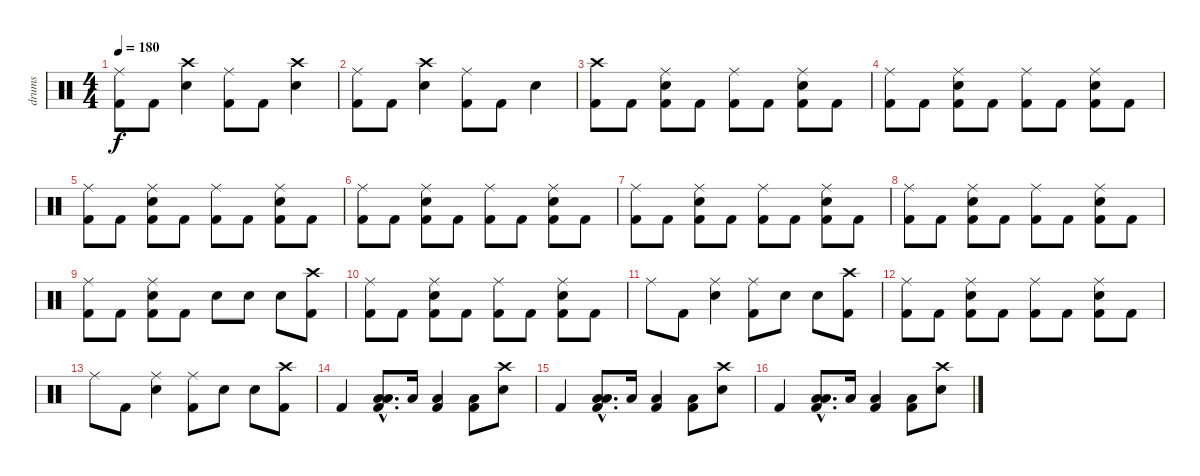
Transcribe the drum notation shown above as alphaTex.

\track ("drums" "drums") {instrument percussion}
\staff {score}
\articulation defaults
\ts (4 4)
\tempo 180
\clef neutral
\ks c
("Ride (middle)" "Kick (hit) 2").8{dy f} "Kick (hit) 2".8 ("Crash high (hit)" "Electric Snare (hit)").4 ("Ride (middle)" "Kick (hit) 2").8 "Kick (hit) 2".8 ("Crash high (hit)" "Electric Snare (hit)").4 |
("Ride (middle)" "Kick (hit) 2").8 "Kick (hit) 2".8 ("Crash high (hit)" "Electric Snare (hit)").4 ("Ride (middle)" "Kick (hit) 2").8 "Kick (hit) 2".8 "Electric Snare (hit)".4 |
("Crash high (hit)" "Kick (hit) 2").8 "Kick (hit) 2".8 ("Ride (middle)" "Electric Snare (hit)" "Kick (hit) 2").8 "Kick (hit) 2".8 ("Ride (middle)" "Kick (hit) 2").8 "Kick (hit) 2".8 ("Ride (middle)" "Electric Snare (hit)" "Kick (hit) 2").8 "Kick (hit) 2".8 |
("Ride (middle)" "Kick (hit) 2").8 "Kick (hit) 2".8 ("Ride (middle)" "Electric Snare (hit)" "Kick (hit) 2").8 "Kick (hit) 2".8 ("Ride (middle)" "Kick (hit) 2").8 "Kick (hit) 2".8 ("Ride (middle)" "Electric Snare (hit)" "Kick (hit) 2").8 "Kick (hit) 2".8 |
("Ride (middle)" "Kick (hit) 2").8 "Kick (hit) 2".8 ("Ride (middle)" "Electric Snare (hit)" "Kick (hit) 2").8 "Kick (hit) 2".8 ("Ride (middle)" "Kick (hit) 2").8 "Kick (hit) 2".8 ("Ride (middle)" "Electric Snare (hit)" "Kick (hit) 2").8 "Kick (hit) 2".8 |
("Ride (middle)" "Kick (hit) 2").8 "Kick (hit) 2".8 ("Ride (middle)" "Electric Snare (hit)" "Kick (hit) 2").8 "Kick (hit) 2".8 ("Ride (middle)" "Kick (hit) 2").8 "Kick (hit) 2".8 ("Ride (middle)" "Electric Snare (hit)" "Kick (hit) 2").8 "Kick (hit) 2".8 |
("Ride (middle)" "Kick (hit) 2").8 "Kick (hit) 2".8 ("Ride (middle)" "Electric Snare (hit)" "Kick (hit) 2").8 "Kick (hit) 2".8 ("Ride (middle)" "Kick (hit) 2").8 "Kick (hit) 2".8 ("Ride (middle)" "Electric Snare (hit)" "Kick (hit) 2").8 "Kick (hit) 2".8 |
("Ride (middle)" "Kick (hit) 2").8 "Kick (hit) 2".8 ("Ride (middle)" "Electric Snare (hit)" "Kick (hit) 2").8 "Kick (hit) 2".8 ("Ride (middle)" "Kick (hit) 2").8 "Kick (hit) 2".8 ("Ride (middle)" "Electric Snare (hit)" "Kick (hit) 2").8 "Kick (hit) 2".8 |
("Ride (middle)" "Kick (hit) 2").8 "Kick (hit) 2".8 ("Ride (middle)" "Electric Snare (hit)" "Kick (hit) 2").8 "Kick (hit) 2".8 "Electric Snare (hit)".8 "Electric Snare (hit)".8 "Electric Snare (hit)".8 ("Crash high (hit)" "Kick (hit) 2").8 |
("Ride (middle)" "Kick (hit) 2").8 "Kick (hit) 2".8 ("Ride (middle)" "Electric Snare (hit)" "Kick (hit) 2").8 "Kick (hit) 2".8 ("Ride (middle)" "Kick (hit) 2").8 "Kick (hit) 2".8 ("Ride (middle)" "Electric Snare (hit)" "Kick (hit) 2").8 "Kick (hit) 2".8 |
"Ride (middle)".8 "Kick (hit) 2".8 ("Ride (middle)" "Electric Snare (hit)").4 ("Ride (middle)" "Kick (hit) 2").8 "Electric Snare (hit)".8 "Electric Snare (hit)".8 ("Crash high (hit)" "Kick (hit) 2").8 |
("Ride (middle)" "Kick (hit) 2").8 "Kick (hit) 2".8 ("Ride (middle)" "Electric Snare (hit)" "Kick (hit) 2").8 "Kick (hit) 2".8 ("Ride (middle)" "Kick (hit) 2").8 "Kick (hit) 2".8 ("Ride (middle)" "Electric Snare (hit)" "Kick (hit) 2").8 "Kick (hit) 2".8 |
"Ride (middle)".8 "Kick (hit) 2".8 ("Ride (middle)" "Electric Snare (hit)").4 ("Ride (middle)" "Kick (hit) 2").8 "Electric Snare (hit)".8 "Electric Snare (hit)".8 ("Crash high (hit)" "Kick (hit) 2").8 |
"Kick (hit) 2".4 ("Low Tom (hit)"{hac} "Low Floor Tom (hit)"{hac} "Kick (hit) 2"{hac}).8{d} "Low Tom (hit)".16 ("Low Floor Tom (hit)" "Kick (hit) 2").4 ("Low Floor Tom (hit)" "Kick (hit) 2").8 ("Crash high (hit)" "Electric Snare (hit)").8 |
"Kick (hit) 2".4 ("Low Tom (hit)"{hac} "Low Floor Tom (hit)"{hac} "Kick (hit) 2"{hac}).8{d} "Low Tom (hit)".16 ("Low Floor Tom (hit)" "Kick (hit) 2").4 ("Low Floor Tom (hit)" "Kick (hit) 2").8 ("Crash high (hit)" "Electric Snare (hit)").8 |
"Kick (hit) 2".4 ("Low Tom (hit)"{hac} "Low Floor Tom (hit)"{hac} "Kick (hit) 2"{hac}).8{d} "Low Tom (hit)".16 ("Low Floor Tom (hit)" "Kick (hit) 2").4 ("Low Floor Tom (hit)" "Kick (hit) 2").8 ("Crash high (hit)" "Electric Snare (hit)").8
